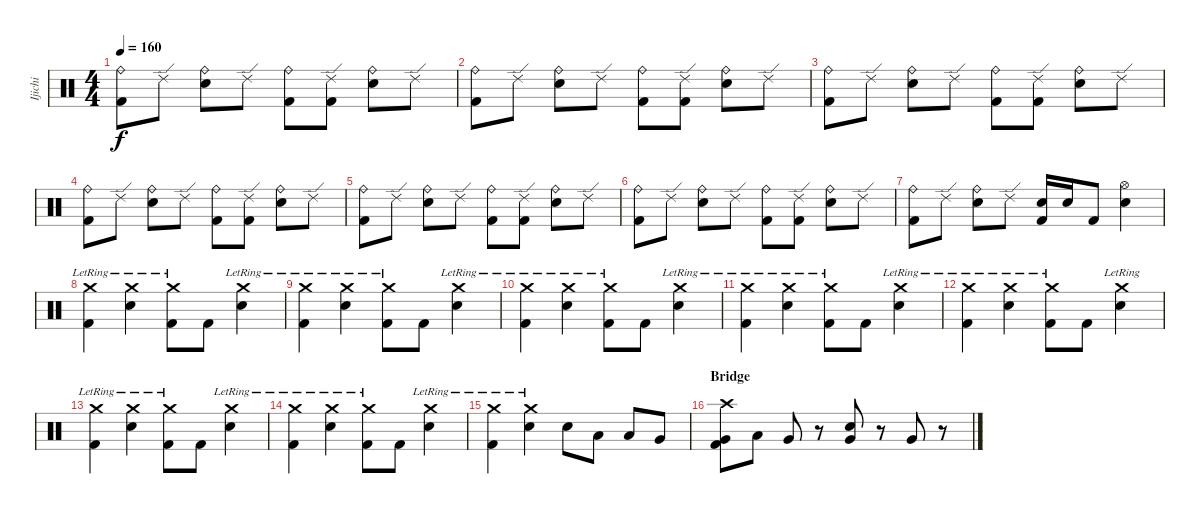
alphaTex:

\track ("Ijichi" "Ijichi") {instrument percussion}
\staff {score}
\articulation defaults
\ts (4 4)
\tempo 160
\clef neutral
\ks c
("Kick (hit) 2" "Ride (bell)").8{dy f} "Ride (edge) 2".8 ("Electric Snare (hit)" "Ride (bell)").8 "Ride (edge) 2".8 ("Kick (hit) 2" "Ride (bell)").8 ("Kick (hit) 2" "Ride (edge) 2").8 ("Electric Snare (hit)" "Ride (bell)").8 "Ride (edge) 2".8 |
("Kick (hit) 2" "Ride (bell)").8 "Ride (edge) 2".8 ("Electric Snare (hit)" "Ride (bell)").8 "Ride (edge) 2".8 ("Kick (hit) 2" "Ride (bell)").8 ("Kick (hit) 2" "Ride (edge) 2").8 ("Electric Snare (hit)" "Ride (bell)").8 "Ride (edge) 2".8 |
("Kick (hit) 2" "Ride (bell)").8 "Ride (edge) 2".8 ("Electric Snare (hit)" "Ride (bell)").8 "Ride (edge) 2".8 ("Kick (hit) 2" "Ride (bell)").8 ("Kick (hit) 2" "Ride (edge) 2").8 ("Electric Snare (hit)" "Ride (bell)").8 "Ride (edge) 2".8 |
("Kick (hit) 2" "Ride (bell)").8 "Ride (edge) 2".8 ("Electric Snare (hit)" "Ride (bell)").8 "Ride (edge) 2".8 ("Kick (hit) 2" "Ride (bell)").8 ("Kick (hit) 2" "Ride (edge) 2").8 ("Electric Snare (hit)" "Ride (bell)").8 "Ride (edge) 2".8 |
("Kick (hit) 2" "Ride (bell)").8 "Ride (edge) 2".8 ("Electric Snare (hit)" "Ride (bell)").8 "Ride (edge) 2".8 ("Kick (hit) 2" "Ride (bell)").8 ("Kick (hit) 2" "Ride (edge) 2").8 ("Electric Snare (hit)" "Ride (bell)").8 "Ride (edge) 2".8 |
("Kick (hit) 2" "Ride (bell)").8 "Ride (edge) 2".8 ("Electric Snare (hit)" "Ride (bell)").8 "Ride (edge) 2".8 ("Kick (hit) 2" "Ride (bell)").8 ("Kick (hit) 2" "Ride (edge) 2").8 ("Electric Snare (hit)" "Ride (bell)").8 "Ride (edge) 2".8 |
("Kick (hit) 2" "Ride (bell)").8 "Ride (edge) 2".8 ("Electric Snare (hit)" "Ride (bell)").8 "Ride (edge) 2".8 ("Kick (hit) 2" "Electric Snare (hit)").16 "Electric Snare (hit)".16 "Kick (hit) 2".8 ("Electric Snare (hit)" "Hi-Hat (open)").4 |
("Kick (hit) 2" "Crash medium (hit)"{lr}).4 ("Electric Snare (hit)" "Crash medium (hit)"{lr}).4 ("Kick (hit) 2" "Crash medium (hit)"{lr}).8 "Kick (hit) 2".8 ("Electric Snare (hit)" "Crash medium (hit)"{lr}).4 |
("Kick (hit) 2" "Crash medium (hit)"{lr}).4 ("Electric Snare (hit)" "Crash medium (hit)"{lr}).4 ("Kick (hit) 2" "Crash medium (hit)"{lr}).8 "Kick (hit) 2".8 ("Electric Snare (hit)" "Crash medium (hit)"{lr}).4 |
("Kick (hit) 2" "Crash medium (hit)"{lr}).4 ("Electric Snare (hit)" "Crash medium (hit)"{lr}).4 ("Kick (hit) 2" "Crash medium (hit)"{lr}).8 "Kick (hit) 2".8 ("Electric Snare (hit)" "Crash medium (hit)"{lr}).4 |
("Kick (hit) 2" "Crash medium (hit)"{lr}).4 ("Electric Snare (hit)" "Crash medium (hit)"{lr}).4 ("Kick (hit) 2" "Crash medium (hit)"{lr}).8 "Kick (hit) 2".8 ("Electric Snare (hit)" "Crash medium (hit)"{lr}).4 |
("Kick (hit) 2" "Crash medium (hit)"{lr}).4 ("Electric Snare (hit)" "Crash medium (hit)"{lr}).4 ("Kick (hit) 2" "Crash medium (hit)"{lr}).8 "Kick (hit) 2".8 ("Electric Snare (hit)" "Crash medium (hit)"{lr}).4 |
("Kick (hit) 2" "Crash medium (hit)"{lr}).4 ("Electric Snare (hit)" "Crash medium (hit)"{lr}).4 ("Kick (hit) 2" "Crash medium (hit)"{lr}).8 "Kick (hit) 2".8 ("Electric Snare (hit)" "Crash medium (hit)"{lr}).4 |
("Kick (hit) 2" "Crash medium (hit)"{lr}).4 ("Electric Snare (hit)" "Crash medium (hit)"{lr}).4 ("Kick (hit) 2" "Crash medium (hit)"{lr}).8 "Kick (hit) 2".8 ("Electric Snare (hit)" "Crash medium (hit)"{lr}).4 |
("Kick (hit) 2" "Crash medium (hit)"{lr}).4 ("Electric Snare (hit)" "Crash medium (hit)"{lr}).4 "Electric Snare (hit)".8 "Low Tom (hit)".8 "Low Tom (hit)".8 "Very Low Tom (hit)".8 |
\section ("" "Bridge")
("Kick (hit) 2" "Very Low Tom (hit)" "Crash high (hit)").8 "Low Tom (hit)".8 "Very Low Tom (hit)".8 r.8 ("Electric Snare (hit)" "Very Low Tom (hit)").8 r.8 "Very Low Tom (hit)".8 r.8
